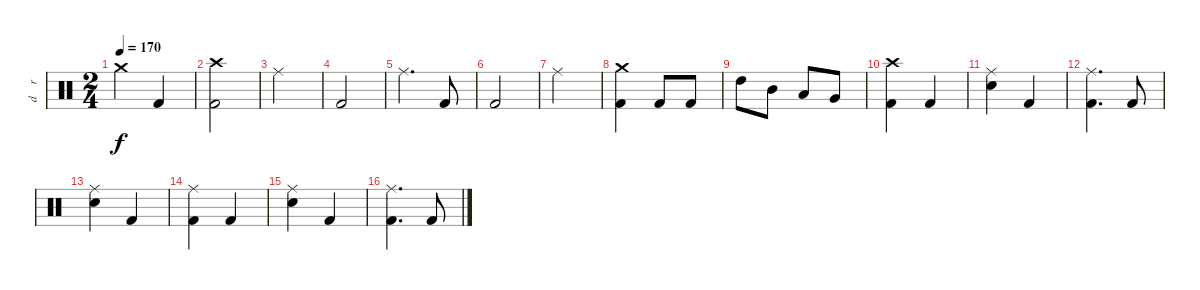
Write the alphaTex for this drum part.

\track ("d    r     u     m    s" "d    r    ") {instrument percussion}
\staff {score}
\articulation defaults
\ts (2 4)
\tempo 170
\clef neutral
\ks c "Crash medium (hit)".4{dy f} "Kick (hit) 2".4
|
("Crash high (hit)" "Kick (hit) 2").2 |
"Ride (middle)".2 |
"Kick (hit) 2".2 |
"Ride (middle)".4{d} "Kick (hit) 2".8 |
"Kick (hit) 2".2 |
"Ride (middle)".2 |
("Crash medium (hit)" "Kick (hit) 2").4 "Kick (hit) 2".8 "Kick (hit) 2".8 |
"High Tom (hit)".8 "Mid Tom (hit)".8 "Low Tom (hit)".8 "Very Low Tom (hit)".8 |
("Crash high (hit)" "Kick (hit) 2").4 "Kick (hit) 2".4 |
("Ride (middle)" "Electric Snare (hit)").4 "Kick (hit) 2".4 |
("Ride (middle)" "Kick (hit) 2").4{d} "Kick (hit) 2".8 |
("Ride (middle)" "Electric Snare (hit)").4 "Kick (hit) 2".4 |
("Ride (middle)" "Kick (hit) 2").4 "Kick (hit) 2".4 |
("Ride (middle)" "Electric Snare (hit)").4 "Kick (hit) 2".4 |
("Ride (middle)" "Kick (hit) 2").4{d} "Kick (hit) 2".8
